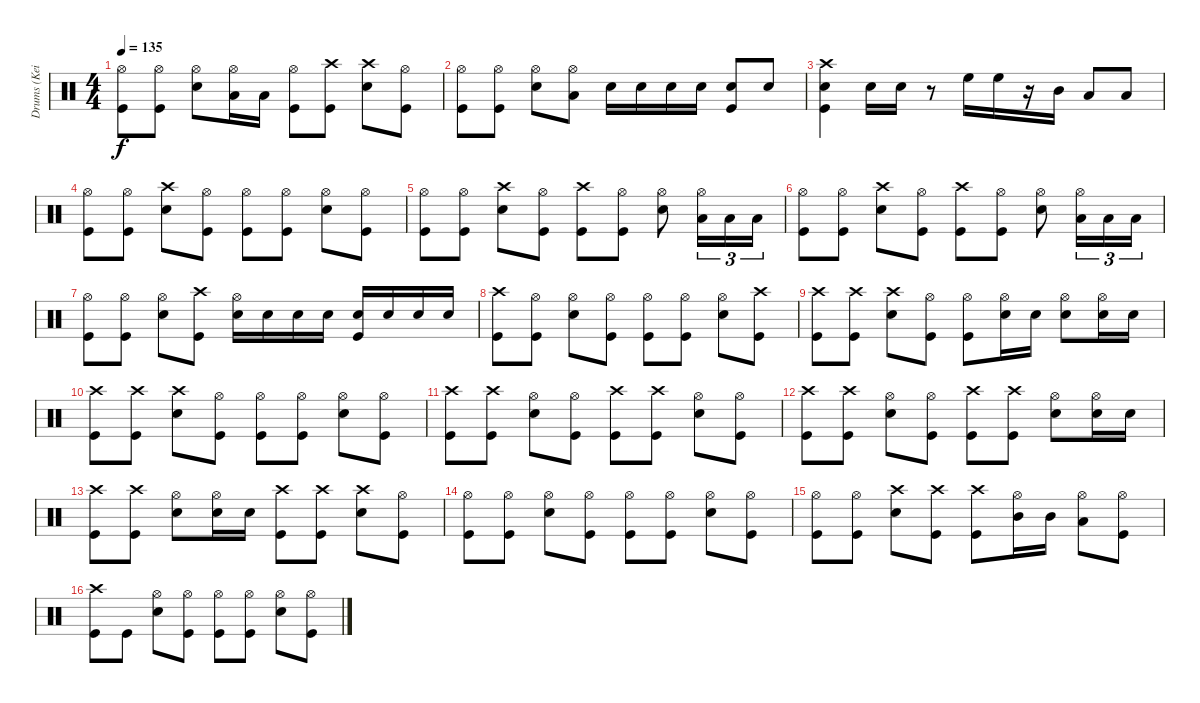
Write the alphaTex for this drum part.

\track ("Drums (Keith)" "Drums (Kei") {instrument percussion}
\staff {score}
\articulation defaults
\ts (4 4)
\tempo 135
\clef neutral
\ks c
("Hi-Hat (open)" "Kick (hit)").8{dy f} ("Hi-Hat (open)" "Kick (hit)").8 ("Hi-Hat (open)" "Snare (hit) 2").8 ("Hi-Hat (open)" "Low Tom (hit)").16 "Low Tom (hit)".16 ("Hi-Hat (open)" "Kick (hit)").8 ("Crash high (hit)" "Kick (hit)").8 ("Crash high (hit)" "Snare (hit) 2").8 ("Hi-Hat (open)" "Kick (hit)").8 |
("Hi-Hat (open)" "Kick (hit)").8 ("Hi-Hat (open)" "Kick (hit)").8 ("Hi-Hat (open)" "Snare (hit) 2").8 ("Hi-Hat (open)" "Low Tom (hit)").8 "Snare (hit) 2".16 "Snare (hit) 2".16 "Snare (hit) 2".16 "Snare (hit) 2".16 ("Snare (hit) 2" "Kick (hit)").8 "Snare (hit) 2".8 |
("Crash high (hit)" "Snare (hit) 2" "Kick (hit)").4 "Snare (hit) 2".16 "Snare (hit) 2".16 r.8 "High Floor Tom (hit)".16 "High Floor Tom (hit)".16 r.16 "Mid Tom (hit)".16 "Low Tom (hit)".8 "Low Tom (hit)".8 |
("Hi-Hat (open)" "Kick (hit)").8 ("Hi-Hat (open)" "Kick (hit)").8 ("Crash high (hit)" "Snare (hit) 2").8 ("Hi-Hat (open)" "Kick (hit)").8 ("Hi-Hat (open)" "Kick (hit)").8 ("Hi-Hat (open)" "Kick (hit)").8 ("Hi-Hat (open)" "Snare (hit) 2").8 ("Hi-Hat (open)" "Kick (hit)").8 |
("Hi-Hat (open)" "Kick (hit)").8 ("Hi-Hat (open)" "Kick (hit)").8 ("Crash high (hit)" "Snare (hit) 2").8 ("Hi-Hat (open)" "Kick (hit)").8 ("Crash high (hit)" "Kick (hit)").8 ("Hi-Hat (open)" "Kick (hit)").8 ("Hi-Hat (open)" "Snare (hit) 2").8 ("Hi-Hat (open)" "Low Tom (hit)").16{tu (3 2)} "Low Tom (hit)".16{tu (3 2)} "Low Tom (hit)".16{tu (3 2)} |
("Hi-Hat (open)" "Kick (hit)").8 ("Hi-Hat (open)" "Kick (hit)").8 ("Crash high (hit)" "Snare (hit) 2").8 ("Hi-Hat (open)" "Kick (hit)").8 ("Crash high (hit)" "Kick (hit)").8 ("Hi-Hat (open)" "Kick (hit)").8 ("Hi-Hat (open)" "Snare (hit) 2").8 ("Hi-Hat (open)" "Low Tom (hit)").16{tu (3 2)} "Low Tom (hit)".16{tu (3 2)} "Low Tom (hit)".16{tu (3 2)} |
("Hi-Hat (open)" "Kick (hit)").8 ("Hi-Hat (open)" "Kick (hit)").8 ("Hi-Hat (open)" "Snare (hit) 2").8 ("Crash high (hit)" "Kick (hit)").8 ("Hi-Hat (open)" "Snare (hit) 2").16 "Snare (hit) 2".16 "Snare (hit) 2".16 "Snare (hit) 2".16 ("Snare (hit) 2" "Kick (hit)").16 "Snare (hit) 2".16 "Snare (hit) 2".16 "Snare (hit) 2".16 |
("Crash high (hit)" "Kick (hit)").8 ("Hi-Hat (open)" "Kick (hit)").8 ("Hi-Hat (open)" "Snare (hit) 2").8 ("Hi-Hat (open)" "Kick (hit)").8 ("Hi-Hat (open)" "Kick (hit)").8 ("Hi-Hat (open)" "Kick (hit)").8 ("Hi-Hat (open)" "Snare (hit) 2").8 ("Crash high (hit)" "Kick (hit)").8 |
("Crash high (hit)" "Kick (hit)").8 ("Crash high (hit)" "Kick (hit)").8 ("Crash high (hit)" "Snare (hit) 2").8 ("Hi-Hat (open)" "Kick (hit)").8 ("Hi-Hat (open)" "Kick (hit)").8 ("Hi-Hat (open)" "Snare (hit) 2").16 "Snare (hit) 2".16 ("Hi-Hat (open)" "Snare (hit) 2").8 ("Hi-Hat (open)" "Snare (hit) 2").16 "Snare (hit) 2".16 |
("Crash high (hit)" "Kick (hit)").8 ("Crash high (hit)" "Kick (hit)").8 ("Crash high (hit)" "Snare (hit) 2").8 ("Hi-Hat (open)" "Kick (hit)").8 ("Hi-Hat (open)" "Kick (hit)").8 ("Hi-Hat (open)" "Kick (hit)").8 ("Hi-Hat (open)" "Snare (hit) 2").8 ("Hi-Hat (open)" "Kick (hit)").8 |
("Crash high (hit)" "Kick (hit)").8 ("Crash high (hit)" "Kick (hit)").8 ("Hi-Hat (open)" "Snare (hit) 2").8 ("Hi-Hat (open)" "Kick (hit)").8 ("Crash high (hit)" "Kick (hit)").8 ("Crash high (hit)" "Kick (hit)").8 ("Hi-Hat (open)" "Snare (hit) 2").8 ("Hi-Hat (open)" "Kick (hit)").8 |
("Crash high (hit)" "Kick (hit)").8 ("Crash high (hit)" "Kick (hit)").8 ("Hi-Hat (open)" "Snare (hit) 2").8 ("Hi-Hat (open)" "Kick (hit)").8 ("Crash high (hit)" "Kick (hit)").8 ("Crash high (hit)" "Kick (hit)").8 ("Hi-Hat (open)" "Snare (hit) 2").8 ("Hi-Hat (open)" "Snare (hit) 2").16 "Snare (hit) 2".16 |
("Crash high (hit)" "Kick (hit)").8 ("Crash high (hit)" "Kick (hit)").8 ("Hi-Hat (open)" "Snare (hit) 2").8 ("Hi-Hat (open)" "Snare (hit) 2").16 "Snare (hit) 2".16 ("Crash high (hit)" "Kick (hit)").8 ("Crash high (hit)" "Kick (hit)").8 ("Crash high (hit)" "Snare (hit) 2").8 ("Hi-Hat (open)" "Kick (hit)").8 |
("Hi-Hat (open)" "Kick (hit)").8 ("Hi-Hat (open)" "Kick (hit)").8 ("Hi-Hat (open)" "Snare (hit) 2").8 ("Hi-Hat (open)" "Kick (hit)").8 ("Hi-Hat (open)" "Kick (hit)").8 ("Hi-Hat (open)" "Kick (hit)").8 ("Hi-Hat (open)" "Snare (hit) 2").8 ("Hi-Hat (open)" "Kick (hit)").8 |
("Hi-Hat (open)" "Kick (hit)").8 ("Hi-Hat (open)" "Kick (hit)").8 ("Crash high (hit)" "Snare (hit) 2").8 ("Crash high (hit)" "Kick (hit)").8 ("Crash high (hit)" "Kick (hit)").8 ("Hi-Hat (open)" "Mid Tom (hit)").16 "Mid Tom (hit)".16 ("Hi-Hat (open)" "Low Tom (hit)").8 ("Hi-Hat (open)" "Kick (hit)").8 |
("Crash high (hit)" "Kick (hit)").8 "Kick (hit)".8 ("Hi-Hat (open)" "Snare (hit) 2").8 ("Hi-Hat (open)" "Kick (hit)").8 ("Hi-Hat (open)" "Kick (hit)").8 ("Hi-Hat (open)" "Kick (hit)").8 ("Hi-Hat (open)" "Snare (hit) 2").8 ("Hi-Hat (open)" "Kick (hit)").8
